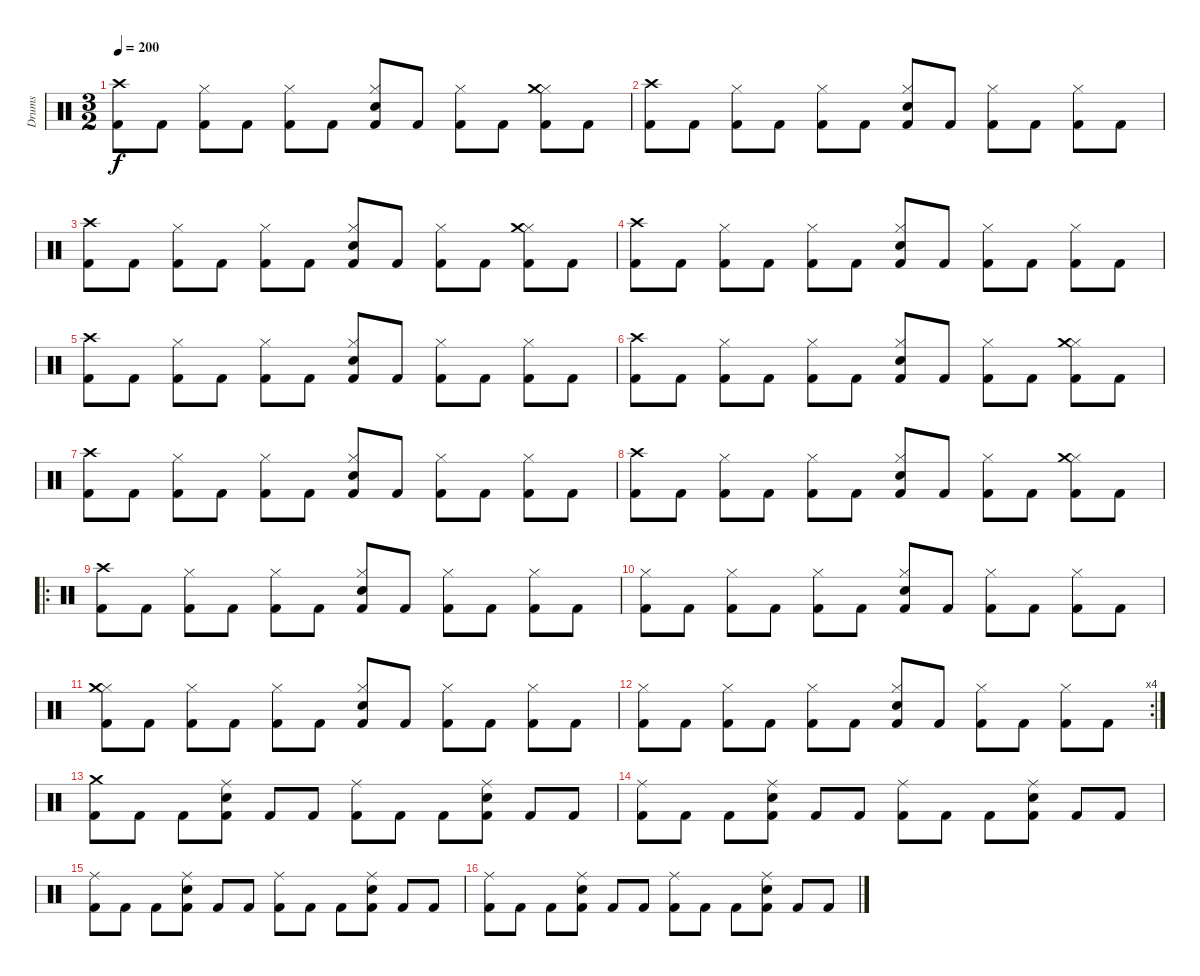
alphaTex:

\track ("Drums" "Drums") {instrument percussion}
\staff {score}
\articulation defaults
\ts (3 2)
\tempo 200
\clef neutral
\ks c
("Kick (hit) 2" "Crash high (hit)").8{dy f} "Kick (hit) 2".8 ("Kick (hit) 2" "Hi-Hat (closed)").8 "Kick (hit) 2".8 ("Kick (hit) 2" "Hi-Hat (closed)").8 "Kick (hit) 2".8 ("Kick (hit) 2" "Hi-Hat (closed)" "Snare (hit) 2").8 "Kick (hit) 2".8 ("Kick (hit) 2" "Hi-Hat (closed)").8 "Kick (hit) 2".8 ("Kick (hit) 2" "Hi-Hat (closed)" "Crash medium (hit)").8 "Kick (hit) 2".8 |
("Kick (hit) 2" "Crash high (hit)").8 "Kick (hit) 2".8 ("Kick (hit) 2" "Hi-Hat (closed)").8 "Kick (hit) 2".8 ("Kick (hit) 2" "Hi-Hat (closed)").8 "Kick (hit) 2".8 ("Kick (hit) 2" "Hi-Hat (closed)" "Snare (hit) 2").8 "Kick (hit) 2".8 ("Kick (hit) 2" "Hi-Hat (closed)").8 "Kick (hit) 2".8 ("Kick (hit) 2" "Hi-Hat (closed)").8 "Kick (hit) 2".8 |
("Kick (hit) 2" "Crash high (hit)").8 "Kick (hit) 2".8 ("Kick (hit) 2" "Hi-Hat (closed)").8 "Kick (hit) 2".8 ("Kick (hit) 2" "Hi-Hat (closed)").8 "Kick (hit) 2".8 ("Kick (hit) 2" "Hi-Hat (closed)" "Snare (hit) 2").8 "Kick (hit) 2".8 ("Kick (hit) 2" "Hi-Hat (closed)").8 "Kick (hit) 2".8 ("Kick (hit) 2" "Hi-Hat (closed)" "Crash medium (hit)").8 "Kick (hit) 2".8 |
("Kick (hit) 2" "Crash high (hit)").8 "Kick (hit) 2".8 ("Kick (hit) 2" "Hi-Hat (closed)").8 "Kick (hit) 2".8 ("Kick (hit) 2" "Hi-Hat (closed)").8 "Kick (hit) 2".8 ("Kick (hit) 2" "Hi-Hat (closed)" "Snare (hit) 2").8 "Kick (hit) 2".8 ("Kick (hit) 2" "Hi-Hat (closed)").8 "Kick (hit) 2".8 ("Kick (hit) 2" "Hi-Hat (closed)").8 "Kick (hit) 2".8 |
("Kick (hit) 2" "Crash high (hit)").8 "Kick (hit) 2".8 ("Kick (hit) 2" "Hi-Hat (closed)").8 "Kick (hit) 2".8 ("Kick (hit) 2" "Hi-Hat (closed)").8 "Kick (hit) 2".8 ("Kick (hit) 2" "Hi-Hat (closed)" "Snare (hit) 2").8 "Kick (hit) 2".8 ("Kick (hit) 2" "Hi-Hat (closed)").8 "Kick (hit) 2".8 ("Kick (hit) 2" "Hi-Hat (closed)").8 "Kick (hit) 2".8 |
("Kick (hit) 2" "Crash high (hit)").8 "Kick (hit) 2".8 ("Kick (hit) 2" "Hi-Hat (closed)").8 "Kick (hit) 2".8 ("Kick (hit) 2" "Hi-Hat (closed)").8 "Kick (hit) 2".8 ("Kick (hit) 2" "Hi-Hat (closed)" "Snare (hit) 2").8 "Kick (hit) 2".8 ("Kick (hit) 2" "Hi-Hat (closed)").8 "Kick (hit) 2".8 ("Kick (hit) 2" "Hi-Hat (closed)" "Crash medium (hit)").8 "Kick (hit) 2".8 |
("Kick (hit) 2" "Crash high (hit)").8 "Kick (hit) 2".8 ("Kick (hit) 2" "Hi-Hat (closed)").8 "Kick (hit) 2".8 ("Kick (hit) 2" "Hi-Hat (closed)").8 "Kick (hit) 2".8 ("Kick (hit) 2" "Hi-Hat (closed)" "Snare (hit) 2").8 "Kick (hit) 2".8 ("Kick (hit) 2" "Hi-Hat (closed)").8 "Kick (hit) 2".8 ("Kick (hit) 2" "Hi-Hat (closed)").8 "Kick (hit) 2".8 |
("Kick (hit) 2" "Crash high (hit)").8 "Kick (hit) 2".8 ("Kick (hit) 2" "Hi-Hat (closed)").8 "Kick (hit) 2".8 ("Kick (hit) 2" "Hi-Hat (closed)").8 "Kick (hit) 2".8 ("Kick (hit) 2" "Hi-Hat (closed)" "Snare (hit) 2").8 "Kick (hit) 2".8 ("Kick (hit) 2" "Hi-Hat (closed)").8 "Kick (hit) 2".8 ("Kick (hit) 2" "Hi-Hat (closed)" "Crash medium (hit)").8 "Kick (hit) 2".8 |
\ro
("Kick (hit) 2" "Crash high (hit)").8 "Kick (hit) 2".8 ("Kick (hit) 2" "Hi-Hat (closed)").8 "Kick (hit) 2".8 ("Kick (hit) 2" "Hi-Hat (closed)").8 "Kick (hit) 2".8 ("Kick (hit) 2" "Hi-Hat (closed)" "Snare (hit) 2").8 "Kick (hit) 2".8 ("Kick (hit) 2" "Hi-Hat (closed)").8 "Kick (hit) 2".8 ("Kick (hit) 2" "Hi-Hat (closed)").8 "Kick (hit) 2".8 |
("Kick (hit) 2" "Hi-Hat (closed)").8 "Kick (hit) 2".8 ("Kick (hit) 2" "Hi-Hat (closed)").8 "Kick (hit) 2".8 ("Kick (hit) 2" "Hi-Hat (closed)").8 "Kick (hit) 2".8 ("Kick (hit) 2" "Hi-Hat (closed)" "Snare (hit) 2").8 "Kick (hit) 2".8 ("Kick (hit) 2" "Hi-Hat (closed)").8 "Kick (hit) 2".8 ("Kick (hit) 2" "Hi-Hat (closed)").8 "Kick (hit) 2".8 |
("Kick (hit) 2" "Hi-Hat (closed)" "Crash medium (hit)").8 "Kick (hit) 2".8 ("Kick (hit) 2" "Hi-Hat (closed)").8 "Kick (hit) 2".8 ("Kick (hit) 2" "Hi-Hat (closed)").8 "Kick (hit) 2".8 ("Kick (hit) 2" "Hi-Hat (closed)" "Snare (hit) 2").8 "Kick (hit) 2".8 ("Kick (hit) 2" "Hi-Hat (closed)").8 "Kick (hit) 2".8 ("Kick (hit) 2" "Hi-Hat (closed)").8 "Kick (hit) 2".8 |
\rc 4
("Kick (hit) 2" "Hi-Hat (closed)").8 "Kick (hit) 2".8 ("Kick (hit) 2" "Hi-Hat (closed)").8 "Kick (hit) 2".8 ("Kick (hit) 2" "Hi-Hat (closed)").8 "Kick (hit) 2".8 ("Kick (hit) 2" "Hi-Hat (closed)" "Snare (hit) 2").8 "Kick (hit) 2".8 ("Kick (hit) 2" "Hi-Hat (closed)").8 "Kick (hit) 2".8 ("Kick (hit) 2" "Hi-Hat (closed)").8 "Kick (hit) 2".8 |
("Kick (hit) 2" "Crash medium (hit)").8 "Kick (hit) 2".8 "Kick (hit) 2".8 ("Kick (hit) 2" "Ride (middle)" "Snare (hit) 2").8 "Kick (hit) 2".8 "Kick (hit) 2".8 ("Kick (hit) 2" "Ride (middle)").8 "Kick (hit) 2".8 "Kick (hit) 2".8 ("Kick (hit) 2" "Ride (middle)" "Snare (hit) 2").8 "Kick (hit) 2".8 "Kick (hit) 2".8 |
("Kick (hit) 2" "Ride (middle)").8 "Kick (hit) 2".8 "Kick (hit) 2".8 ("Kick (hit) 2" "Ride (middle)" "Snare (hit) 2").8 "Kick (hit) 2".8 "Kick (hit) 2".8 ("Kick (hit) 2" "Ride (middle)").8 "Kick (hit) 2".8 "Kick (hit) 2".8 ("Kick (hit) 2" "Ride (middle)" "Snare (hit) 2").8 "Kick (hit) 2".8 "Kick (hit) 2".8 |
("Kick (hit) 2" "Ride (middle)").8 "Kick (hit) 2".8 "Kick (hit) 2".8 ("Kick (hit) 2" "Ride (middle)" "Snare (hit) 2").8 "Kick (hit) 2".8 "Kick (hit) 2".8 ("Kick (hit) 2" "Ride (middle)").8 "Kick (hit) 2".8 "Kick (hit) 2".8 ("Kick (hit) 2" "Ride (middle)" "Snare (hit) 2").8 "Kick (hit) 2".8 "Kick (hit) 2".8 |
("Kick (hit) 2" "Ride (middle)").8 "Kick (hit) 2".8 "Kick (hit) 2".8 ("Kick (hit) 2" "Ride (middle)" "Snare (hit) 2").8 "Kick (hit) 2".8 "Kick (hit) 2".8 ("Kick (hit) 2" "Ride (middle)").8 "Kick (hit) 2".8 "Kick (hit) 2".8 ("Kick (hit) 2" "Ride (middle)" "Snare (hit) 2").8 "Kick (hit) 2".8 "Kick (hit) 2".8
